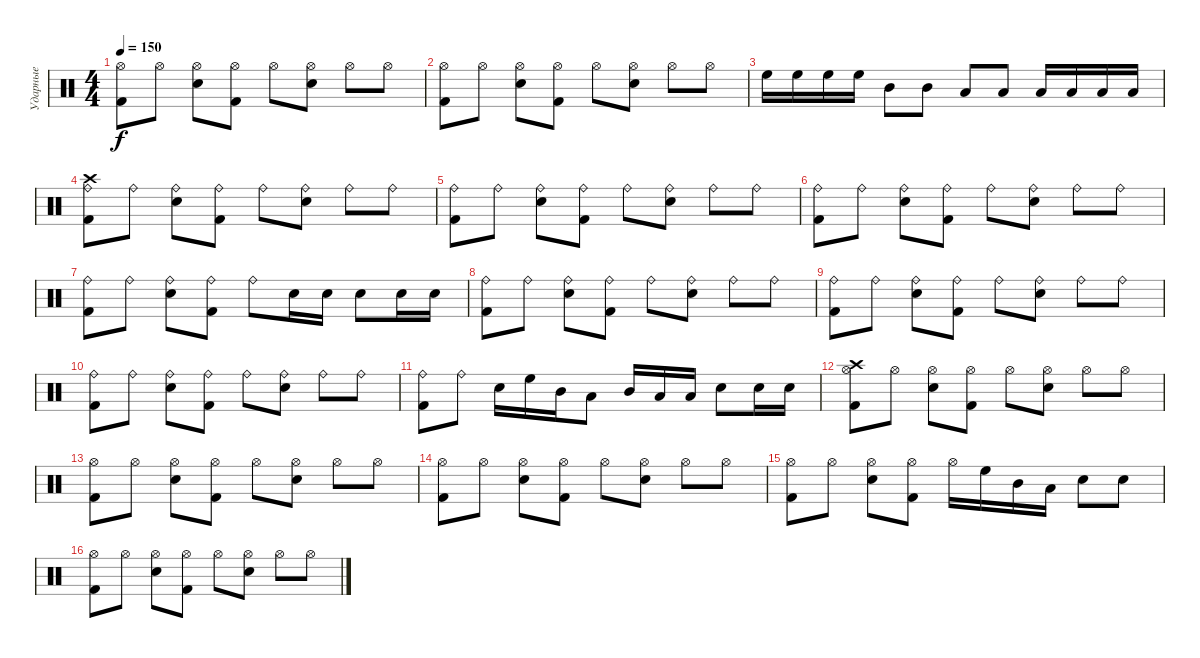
\track ("Ударные" "Ударные") {instrument percussion}
\staff {score}
\articulation defaults
\ts (4 4)
\tempo 150
\clef neutral
\ks c
("Hi-Hat (open)" "Kick (hit) 2").8{dy f} "Hi-Hat (open)".8 ("Hi-Hat (open)" "Snare (hit) 2").8 ("Hi-Hat (open)" "Kick (hit) 2").8 "Hi-Hat (open)".8 ("Hi-Hat (open)" "Snare (hit) 2").8 "Hi-Hat (open)".8 "Hi-Hat (open)".8 |
("Hi-Hat (open)" "Kick (hit) 2").8 "Hi-Hat (open)".8 ("Hi-Hat (open)" "Snare (hit) 2").8 ("Hi-Hat (open)" "Kick (hit) 2").8 "Hi-Hat (open)".8 ("Hi-Hat (open)" "Snare (hit) 2").8 "Hi-Hat (open)".8 "Hi-Hat (open)".8 |
"High Floor Tom (hit)".16 "High Floor Tom (hit)".16 "High Floor Tom (hit)".16 "High Floor Tom (hit)".16 "Mid Tom (hit)".8 "Mid Tom (hit)".8 "Low Tom (hit)".8 "Low Tom (hit)".8 "Low Floor Tom (hit)".16 "Low Floor Tom (hit)".16 "Low Floor Tom (hit)".16 "Low Floor Tom (hit)".16 |
("Ride (bell)" "Crash high (hit)" "Kick (hit) 2").8 "Ride (bell)".8 ("Ride (bell)" "Snare (hit) 2").8 ("Ride (bell)" "Kick (hit) 2").8 "Ride (bell)".8 ("Ride (bell)" "Snare (hit) 2").8 "Ride (bell)".8 "Ride (bell)".8 |
("Ride (bell)" "Kick (hit) 2").8 "Ride (bell)".8 ("Ride (bell)" "Snare (hit) 2").8 ("Ride (bell)" "Kick (hit) 2").8 "Ride (bell)".8 ("Ride (bell)" "Snare (hit) 2").8 "Ride (bell)".8 "Ride (bell)".8 |
("Ride (bell)" "Kick (hit) 2").8 "Ride (bell)".8 ("Ride (bell)" "Snare (hit) 2").8 ("Ride (bell)" "Kick (hit) 2").8 "Ride (bell)".8 ("Ride (bell)" "Snare (hit) 2").8 "Ride (bell)".8 "Ride (bell)".8 |
("Ride (bell)" "Kick (hit) 2").8 "Ride (bell)".8 ("Ride (bell)" "Snare (hit) 2").8 ("Ride (bell)" "Kick (hit) 2").8 "Ride (bell)".8 "Snare (hit) 2".16 "Snare (hit) 2".16 "Snare (hit) 2".8 "Snare (hit) 2".16 "Snare (hit) 2".16 |
("Ride (bell)" "Kick (hit) 2").8 "Ride (bell)".8 ("Ride (bell)" "Snare (hit) 2").8 ("Ride (bell)" "Kick (hit) 2").8 "Ride (bell)".8 ("Ride (bell)" "Snare (hit) 2").8 "Ride (bell)".8 "Ride (bell)".8 |
("Ride (bell)" "Kick (hit) 2").8 "Ride (bell)".8 ("Ride (bell)" "Snare (hit) 2").8 ("Ride (bell)" "Kick (hit) 2").8 "Ride (bell)".8 ("Ride (bell)" "Snare (hit) 2").8 "Ride (bell)".8 "Ride (bell)".8 |
("Ride (bell)" "Kick (hit) 2").8 "Ride (bell)".8 ("Ride (bell)" "Snare (hit) 2").8 ("Ride (bell)" "Kick (hit) 2").8 "Ride (bell)".8 ("Ride (bell)" "Snare (hit) 2").8 "Ride (bell)".8 "Ride (bell)".8 |
("Ride (bell)" "Kick (hit) 2").8 "Ride (bell)".8 "Snare (hit) 2".16 "High Floor Tom (hit)".16 "Mid Tom (hit)".16 "Low Tom (hit)".8 "Mid Tom (hit)".16 "Low Tom (hit)".16 "Low Floor Tom (hit)".16 "Snare (hit) 2".8 "Snare (hit) 2".16 "Snare (hit) 2".16 |
("Hi-Hat (open)" "Crash high (hit)" "Kick (hit) 2").8 "Hi-Hat (open)".8 ("Hi-Hat (open)" "Snare (hit) 2").8 ("Hi-Hat (open)" "Kick (hit) 2").8 "Hi-Hat (open)".8 ("Hi-Hat (open)" "Snare (hit) 2").8 "Hi-Hat (open)".8 "Hi-Hat (open)".8 |
("Hi-Hat (open)" "Kick (hit) 2").8 "Hi-Hat (open)".8 ("Hi-Hat (open)" "Snare (hit) 2").8 ("Hi-Hat (open)" "Kick (hit) 2").8 "Hi-Hat (open)".8 ("Hi-Hat (open)" "Snare (hit) 2").8 "Hi-Hat (open)".8 "Hi-Hat (open)".8 |
("Hi-Hat (open)" "Kick (hit) 2").8 "Hi-Hat (open)".8 ("Hi-Hat (open)" "Snare (hit) 2").8 ("Hi-Hat (open)" "Kick (hit) 2").8 "Hi-Hat (open)".8 ("Hi-Hat (open)" "Snare (hit) 2").8 "Hi-Hat (open)".8 "Hi-Hat (open)".8 |
("Hi-Hat (open)" "Kick (hit) 2").8 "Hi-Hat (open)".8 ("Hi-Hat (open)" "Snare (hit) 2").8 ("Hi-Hat (open)" "Kick (hit) 2").8 "Hi-Hat (open)".16 "High Floor Tom (hit)".16 "Mid Tom (hit)".16 "Low Tom (hit)".16 "Snare (hit) 2".8 "Snare (hit) 2".8 |
("Hi-Hat (open)" "Kick (hit) 2").8 "Hi-Hat (open)".8 ("Hi-Hat (open)" "Snare (hit) 2").8 ("Hi-Hat (open)" "Kick (hit) 2").8 "Hi-Hat (open)".8 ("Hi-Hat (open)" "Snare (hit) 2").8 "Hi-Hat (open)".8 "Hi-Hat (open)".8
